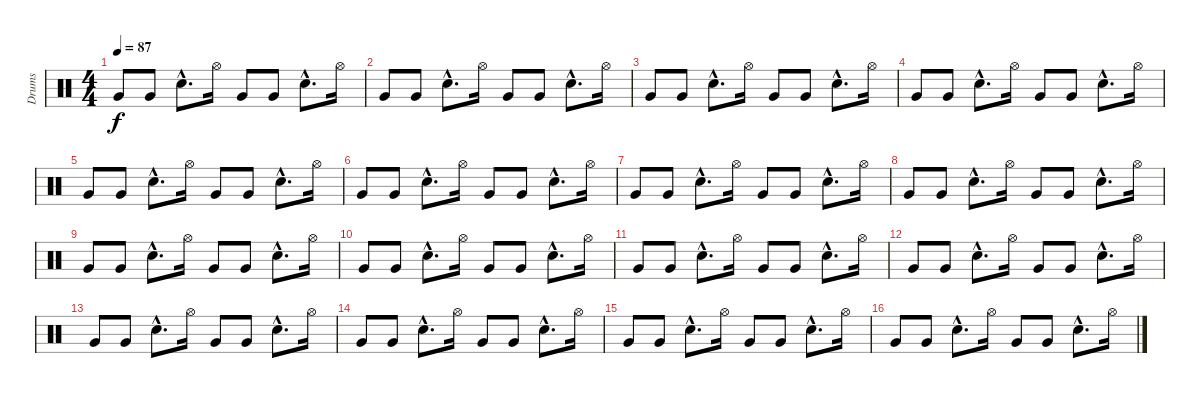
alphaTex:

\track ("Drums" "Drums") {instrument percussion}
\staff {score}
\articulation defaults
\ts (4 4)
\tempo 87
\clef neutral
\ks c "Very Low Tom (hit)".8{dy f} "Very Low Tom (hit)".8 "Snare (hit) 2"{hac}.8{d} "Hi-Hat (open)".16 "Very Low Tom (hit)".8 "Very Low Tom (hit)".8 "Snare (hit) 2"{hac}.8{d} "Hi-Hat (open)".16
|
"Very Low Tom (hit)".8 "Very Low Tom (hit)".8 "Snare (hit) 2"{hac}.8{d} "Hi-Hat (open)".16 "Very Low Tom (hit)".8 "Very Low Tom (hit)".8 "Snare (hit) 2"{hac}.8{d} "Hi-Hat (open)".16 |
"Very Low Tom (hit)".8 "Very Low Tom (hit)".8 "Snare (hit) 2"{hac}.8{d} "Hi-Hat (open)".16 "Very Low Tom (hit)".8 "Very Low Tom (hit)".8 "Snare (hit) 2"{hac}.8{d} "Hi-Hat (open)".16 |
"Very Low Tom (hit)".8 "Very Low Tom (hit)".8 "Snare (hit) 2"{hac}.8{d} "Hi-Hat (open)".16 "Very Low Tom (hit)".8 "Very Low Tom (hit)".8 "Snare (hit) 2"{hac}.8{d} "Hi-Hat (open)".16 |
"Very Low Tom (hit)".8 "Very Low Tom (hit)".8 "Snare (hit) 2"{hac}.8{d} "Hi-Hat (open)".16 "Very Low Tom (hit)".8 "Very Low Tom (hit)".8 "Snare (hit) 2"{hac}.8{d} "Hi-Hat (open)".16 |
"Very Low Tom (hit)".8 "Very Low Tom (hit)".8 "Snare (hit) 2"{hac}.8{d} "Hi-Hat (open)".16 "Very Low Tom (hit)".8 "Very Low Tom (hit)".8 "Snare (hit) 2"{hac}.8{d} "Hi-Hat (open)".16 |
"Very Low Tom (hit)".8 "Very Low Tom (hit)".8 "Snare (hit) 2"{hac}.8{d} "Hi-Hat (open)".16 "Very Low Tom (hit)".8 "Very Low Tom (hit)".8 "Snare (hit) 2"{hac}.8{d} "Hi-Hat (open)".16 |
"Very Low Tom (hit)".8 "Very Low Tom (hit)".8 "Snare (hit) 2"{hac}.8{d} "Hi-Hat (open)".16 "Very Low Tom (hit)".8 "Very Low Tom (hit)".8 "Snare (hit) 2"{hac}.8{d} "Hi-Hat (open)".16 |
"Very Low Tom (hit)".8 "Very Low Tom (hit)".8 "Snare (hit) 2"{hac}.8{d} "Hi-Hat (open)".16 "Very Low Tom (hit)".8 "Very Low Tom (hit)".8 "Snare (hit) 2"{hac}.8{d} "Hi-Hat (open)".16 |
"Very Low Tom (hit)".8 "Very Low Tom (hit)".8 "Snare (hit) 2"{hac}.8{d} "Hi-Hat (open)".16 "Very Low Tom (hit)".8 "Very Low Tom (hit)".8 "Snare (hit) 2"{hac}.8{d} "Hi-Hat (open)".16 |
"Very Low Tom (hit)".8 "Very Low Tom (hit)".8 "Snare (hit) 2"{hac}.8{d} "Hi-Hat (open)".16 "Very Low Tom (hit)".8 "Very Low Tom (hit)".8 "Snare (hit) 2"{hac}.8{d} "Hi-Hat (open)".16 |
"Very Low Tom (hit)".8 "Very Low Tom (hit)".8 "Snare (hit) 2"{hac}.8{d} "Hi-Hat (open)".16 "Very Low Tom (hit)".8 "Very Low Tom (hit)".8 "Snare (hit) 2"{hac}.8{d} "Hi-Hat (open)".16 |
"Very Low Tom (hit)".8 "Very Low Tom (hit)".8 "Snare (hit) 2"{hac}.8{d} "Hi-Hat (open)".16 "Very Low Tom (hit)".8 "Very Low Tom (hit)".8 "Snare (hit) 2"{hac}.8{d} "Hi-Hat (open)".16 |
"Very Low Tom (hit)".8 "Very Low Tom (hit)".8 "Snare (hit) 2"{hac}.8{d} "Hi-Hat (open)".16 "Very Low Tom (hit)".8 "Very Low Tom (hit)".8 "Snare (hit) 2"{hac}.8{d} "Hi-Hat (open)".16 |
"Very Low Tom (hit)".8 "Very Low Tom (hit)".8 "Snare (hit) 2"{hac}.8{d} "Hi-Hat (open)".16 "Very Low Tom (hit)".8 "Very Low Tom (hit)".8 "Snare (hit) 2"{hac}.8{d} "Hi-Hat (open)".16 |
"Very Low Tom (hit)".8 "Very Low Tom (hit)".8 "Snare (hit) 2"{hac}.8{d} "Hi-Hat (open)".16 "Very Low Tom (hit)".8 "Very Low Tom (hit)".8 "Snare (hit) 2"{hac}.8{d} "Hi-Hat (open)".16
